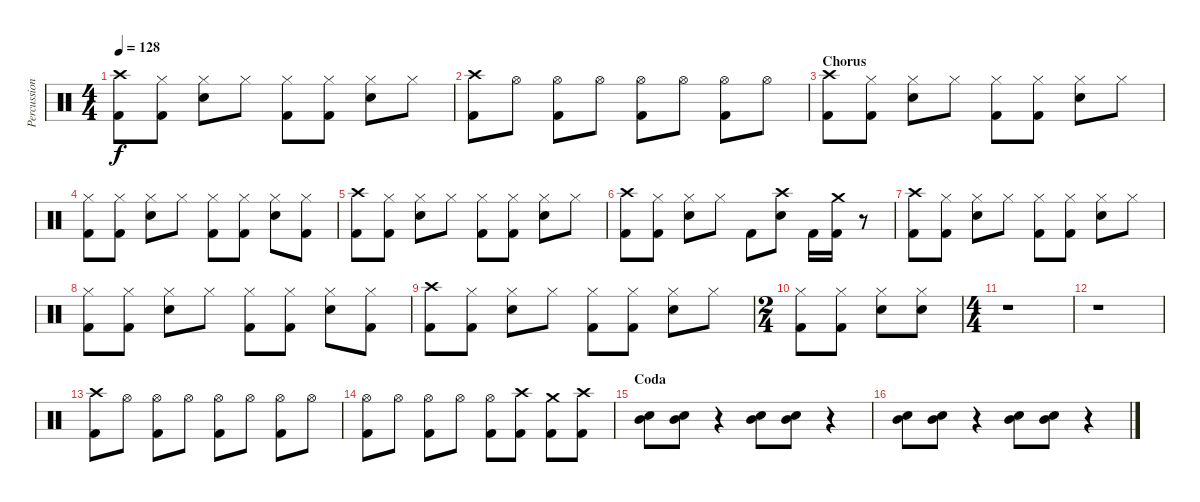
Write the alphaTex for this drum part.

\track ("Percussion" "Percussion") {instrument percussion}
\staff {score}
\articulation defaults
\ts (4 4)
\tempo 128
\clef neutral
\ks c
("Crash high (hit)" "Kick (hit) 2").8{dy f} ("Hi-Hat (closed)" "Kick (hit) 2").8 ("Hi-Hat (closed)" "Snare (hit) 2").8 "Hi-Hat (closed)".8 ("Hi-Hat (closed)" "Kick (hit) 2").8 ("Hi-Hat (closed)" "Kick (hit) 2").8 ("Hi-Hat (closed)" "Snare (hit) 2").8 "Hi-Hat (closed)".8 |
("Crash high (hit)" "Kick (hit) 2").8 "Hi-Hat (open)".8 ("Hi-Hat (open)" "Kick (hit) 2").8 "Hi-Hat (open)".8 ("Hi-Hat (open)" "Kick (hit) 2").8 "Hi-Hat (open)".8 ("Hi-Hat (open)" "Kick (hit) 2").8 "Hi-Hat (open)".8 |
\section ("" "Chorus")
("Crash high (hit)" "Kick (hit) 2").8 ("Hi-Hat (closed)" "Kick (hit) 2").8 ("Hi-Hat (closed)" "Snare (hit) 2").8 "Hi-Hat (closed)".8 ("Hi-Hat (closed)" "Kick (hit) 2").8 ("Hi-Hat (closed)" "Kick (hit) 2").8 ("Hi-Hat (closed)" "Snare (hit) 2").8 "Hi-Hat (closed)".8 |
("Hi-Hat (closed)" "Kick (hit) 2").8 ("Hi-Hat (closed)" "Kick (hit) 2").8 ("Hi-Hat (closed)" "Snare (hit) 2").8 "Hi-Hat (closed)".8 ("Hi-Hat (closed)" "Kick (hit) 2").8 ("Hi-Hat (closed)" "Kick (hit) 2").8 ("Hi-Hat (closed)" "Snare (hit) 2").8 ("Hi-Hat (closed)" "Kick (hit) 2").8 |
("Crash high (hit)" "Kick (hit) 2").8 ("Hi-Hat (closed)" "Kick (hit) 2").8 ("Hi-Hat (closed)" "Snare (hit) 2").8 "Hi-Hat (closed)".8 ("Hi-Hat (closed)" "Kick (hit) 2").8 ("Hi-Hat (closed)" "Kick (hit) 2").8 ("Hi-Hat (closed)" "Snare (hit) 2").8 "Hi-Hat (closed)".8 |
("Crash high (hit)" "Kick (hit) 2").8 ("Hi-Hat (closed)" "Kick (hit) 2").8 ("Hi-Hat (closed)" "Snare (hit) 2").8 "Hi-Hat (closed)".8 "Kick (hit) 2".8 ("Crash high (hit)" "Snare (hit) 2").8 "Kick (hit) 2".16 ("Crash medium (hit)" "Kick (hit) 2").16 r.8 |
("Crash high (hit)" "Kick (hit) 2").8 ("Hi-Hat (closed)" "Kick (hit) 2").8 ("Hi-Hat (closed)" "Snare (hit) 2").8 "Hi-Hat (closed)".8 ("Hi-Hat (closed)" "Kick (hit) 2").8 ("Hi-Hat (closed)" "Kick (hit) 2").8 ("Hi-Hat (closed)" "Snare (hit) 2").8 "Hi-Hat (closed)".8 |
("Hi-Hat (closed)" "Kick (hit) 2").8 ("Hi-Hat (closed)" "Kick (hit) 2").8 ("Hi-Hat (closed)" "Snare (hit) 2").8 "Hi-Hat (closed)".8 ("Hi-Hat (closed)" "Kick (hit) 2").8 ("Hi-Hat (closed)" "Kick (hit) 2").8 ("Hi-Hat (closed)" "Snare (hit) 2").8 ("Hi-Hat (closed)" "Kick (hit) 2").8 |
("Crash high (hit)" "Kick (hit) 2").8 ("Hi-Hat (closed)" "Kick (hit) 2").8 ("Hi-Hat (closed)" "Snare (hit) 2").8 "Hi-Hat (closed)".8 ("Hi-Hat (closed)" "Kick (hit) 2").8 ("Hi-Hat (closed)" "Kick (hit) 2").8 ("Hi-Hat (closed)" "Snare (hit) 2").8 "Hi-Hat (closed)".8 |
\ts (2 4)
("Hi-Hat (closed)" "Kick (hit) 2").8 ("Hi-Hat (closed)" "Kick (hit) 2").8 ("Hi-Hat (closed)" "Snare (hit) 2").8 ("Hi-Hat (closed)" "Snare (hit) 2").8 |
\ts (4 4)
r.1 |
r.1 |
("Crash high (hit)" "Kick (hit) 2").8 "Hi-Hat (open)".8 ("Hi-Hat (open)" "Kick (hit) 2").8 "Hi-Hat (open)".8 ("Hi-Hat (open)" "Kick (hit) 2").8 "Hi-Hat (open)".8 ("Hi-Hat (open)" "Kick (hit) 2").8 "Hi-Hat (open)".8 |
("Hi-Hat (open)" "Kick (hit) 2").8 "Hi-Hat (open)".8 ("Hi-Hat (open)" "Kick (hit) 2").8 "Hi-Hat (open)".8 ("Hi-Hat (open)" "Kick (hit) 2").8 ("Crash high (hit)" "Kick (hit) 2").8 ("Crash medium (hit)" "Kick (hit) 2").8 ("Crash high (hit)" "Kick (hit) 2").8 |
\section ("" "Coda")
("Snare (hit) 2" "Mid Tom (hit)").8 ("Snare (hit) 2" "Mid Tom (hit)").8 r.4 ("Snare (hit) 2" "Mid Tom (hit)").8 ("Snare (hit) 2" "Mid Tom (hit)").8 r.4 |
("Snare (hit) 2" "Mid Tom (hit)").8 ("Snare (hit) 2" "Mid Tom (hit)").8 r.4 ("Snare (hit) 2" "Mid Tom (hit)").8 ("Snare (hit) 2" "Mid Tom (hit)").8 r.4
